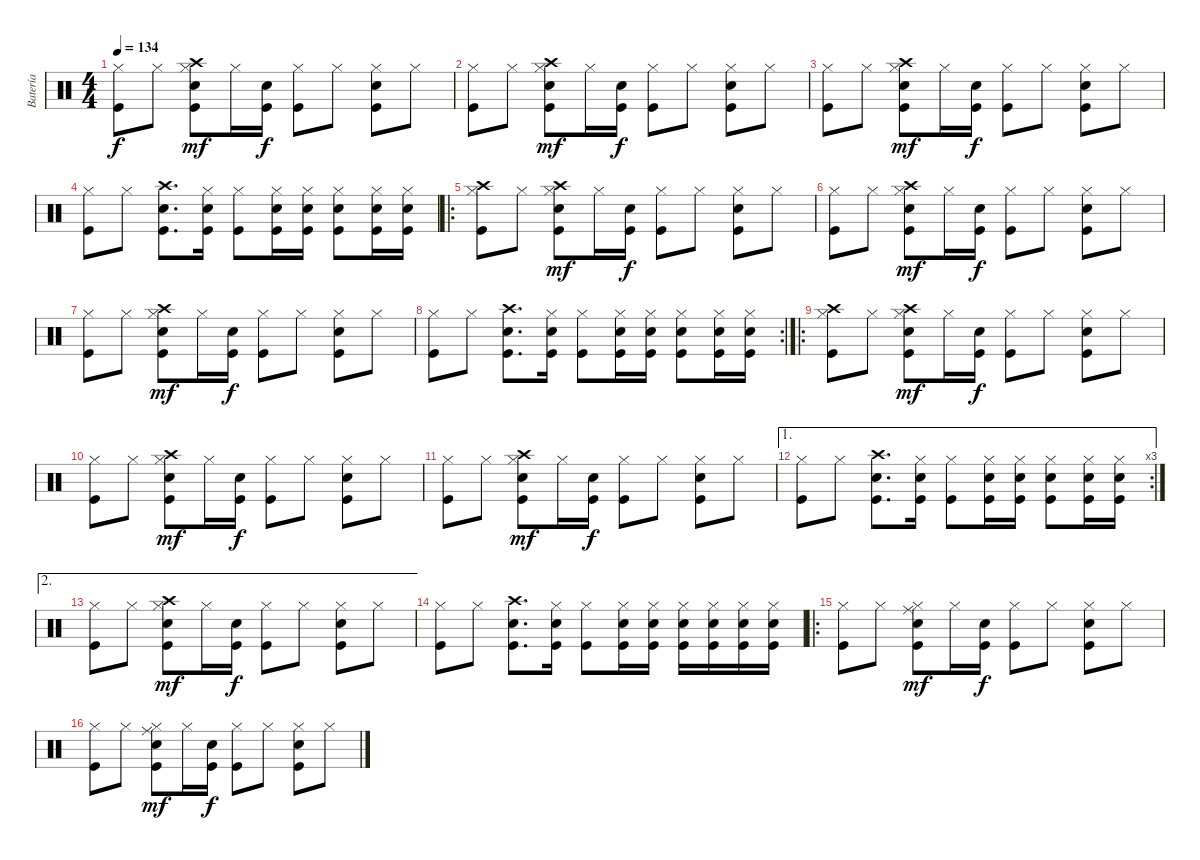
\track ("Batería" "Batería") {instrument percussion}
\staff {score}
\articulation defaults
\ts (4 4)
\tempo 134
\clef neutral
\ks c
("Hi-Hat (closed)" "Kick (hit)").8{dy f} "Hi-Hat (closed)".8 ("Snare (hit) 2" "Crash high (hit)" "Kick (hit)" "Hi-Hat (closed)").8{dy mf} "Hi-Hat (closed)".16 ("Snare (hit) 2" "Kick (hit)").16{dy f} ("Hi-Hat (closed)" "Kick (hit)").8 "Hi-Hat (closed)".8 ("Hi-Hat (closed)" "Snare (hit) 2" "Kick (hit)").8 "Hi-Hat (closed)".8 |
("Hi-Hat (closed)" "Kick (hit)").8 "Hi-Hat (closed)".8 ("Snare (hit) 2" "Crash high (hit)" "Kick (hit)" "Hi-Hat (closed)").8{dy mf} "Hi-Hat (closed)".16 ("Snare (hit) 2" "Kick (hit)").16{dy f} ("Hi-Hat (closed)" "Kick (hit)").8 "Hi-Hat (closed)".8 ("Hi-Hat (closed)" "Snare (hit) 2" "Kick (hit)").8 "Hi-Hat (closed)".8 |
("Hi-Hat (closed)" "Kick (hit)").8 "Hi-Hat (closed)".8 ("Snare (hit) 2" "Crash high (hit)" "Kick (hit)" "Hi-Hat (closed)").8{dy mf} "Hi-Hat (closed)".16 ("Snare (hit) 2" "Kick (hit)").16{dy f} ("Hi-Hat (closed)" "Kick (hit)").8 "Hi-Hat (closed)".8 ("Hi-Hat (closed)" "Snare (hit) 2" "Kick (hit)").8 "Hi-Hat (closed)".8 |
("Hi-Hat (closed)" "Kick (hit)").8 "Hi-Hat (closed)".8 ("Snare (hit) 2" "Crash high (hit)" "Kick (hit)").8{d} ("Hi-Hat (closed)" "Snare (hit) 2" "Kick (hit)").16 ("Hi-Hat (closed)" "Kick (hit)").8 ("Hi-Hat (closed)" "Snare (hit) 2" "Kick (hit)").16 ("Hi-Hat (closed)" "Snare (hit) 2" "Kick (hit)").16 ("Hi-Hat (closed)" "Snare (hit) 2" "Kick (hit)").8 ("Hi-Hat (closed)" "Snare (hit) 2" "Kick (hit)").16 ("Hi-Hat (closed)" "Snare (hit) 2" "Kick (hit)").16 |
\ro
("Crash high (hit)" "Kick (hit)" "Hi-Hat (closed)").8 "Hi-Hat (closed)".8 ("Snare (hit) 2" "Crash high (hit)" "Kick (hit)" "Hi-Hat (closed)").8{dy mf} "Hi-Hat (closed)".16 ("Snare (hit) 2" "Kick (hit)").16{dy f} ("Hi-Hat (closed)" "Kick (hit)").8 "Hi-Hat (closed)".8 ("Hi-Hat (closed)" "Snare (hit) 2" "Kick (hit)").8 "Hi-Hat (closed)".8 |
("Hi-Hat (closed)" "Kick (hit)").8 "Hi-Hat (closed)".8 ("Snare (hit) 2" "Crash high (hit)" "Kick (hit)" "Hi-Hat (closed)").8{dy mf} "Hi-Hat (closed)".16 ("Snare (hit) 2" "Kick (hit)").16{dy f} ("Hi-Hat (closed)" "Kick (hit)").8 "Hi-Hat (closed)".8 ("Hi-Hat (closed)" "Snare (hit) 2" "Kick (hit)").8 "Hi-Hat (closed)".8 |
("Hi-Hat (closed)" "Kick (hit)").8 "Hi-Hat (closed)".8 ("Snare (hit) 2" "Crash high (hit)" "Kick (hit)" "Hi-Hat (closed)").8{dy mf} "Hi-Hat (closed)".16 ("Snare (hit) 2" "Kick (hit)").16{dy f} ("Hi-Hat (closed)" "Kick (hit)").8 "Hi-Hat (closed)".8 ("Hi-Hat (closed)" "Snare (hit) 2" "Kick (hit)").8 "Hi-Hat (closed)".8 |
\rc 2
("Hi-Hat (closed)" "Kick (hit)").8 "Hi-Hat (closed)".8 ("Snare (hit) 2" "Crash high (hit)" "Kick (hit)").8{d} ("Hi-Hat (closed)" "Snare (hit) 2" "Kick (hit)").16 ("Hi-Hat (closed)" "Kick (hit)").8 ("Hi-Hat (closed)" "Snare (hit) 2" "Kick (hit)").16 ("Hi-Hat (closed)" "Snare (hit) 2" "Kick (hit)").16 ("Hi-Hat (closed)" "Snare (hit) 2" "Kick (hit)").8 ("Hi-Hat (closed)" "Snare (hit) 2" "Kick (hit)").16 ("Hi-Hat (closed)" "Snare (hit) 2" "Kick (hit)").16 |
\ro
("Crash high (hit)" "Kick (hit)" "Hi-Hat (closed)").8 "Hi-Hat (closed)".8 ("Snare (hit) 2" "Crash high (hit)" "Kick (hit)" "Hi-Hat (closed)").8{dy mf} "Hi-Hat (closed)".16 ("Snare (hit) 2" "Kick (hit)").16{dy f} ("Hi-Hat (closed)" "Kick (hit)").8 "Hi-Hat (closed)".8 ("Hi-Hat (closed)" "Snare (hit) 2" "Kick (hit)").8 "Hi-Hat (closed)".8 |
("Hi-Hat (closed)" "Kick (hit)").8 "Hi-Hat (closed)".8 ("Snare (hit) 2" "Crash high (hit)" "Kick (hit)" "Hi-Hat (closed)").8{dy mf} "Hi-Hat (closed)".16 ("Snare (hit) 2" "Kick (hit)").16{dy f} ("Hi-Hat (closed)" "Kick (hit)").8 "Hi-Hat (closed)".8 ("Hi-Hat (closed)" "Snare (hit) 2" "Kick (hit)").8 "Hi-Hat (closed)".8 |
("Hi-Hat (closed)" "Kick (hit)").8 "Hi-Hat (closed)".8 ("Snare (hit) 2" "Crash high (hit)" "Kick (hit)" "Hi-Hat (closed)").8{dy mf} "Hi-Hat (closed)".16 ("Snare (hit) 2" "Kick (hit)").16{dy f} ("Hi-Hat (closed)" "Kick (hit)").8 "Hi-Hat (closed)".8 ("Hi-Hat (closed)" "Snare (hit) 2" "Kick (hit)").8 "Hi-Hat (closed)".8 |
\ae 1
\rc 3
("Hi-Hat (closed)" "Kick (hit)").8 "Hi-Hat (closed)".8 ("Snare (hit) 2" "Crash high (hit)" "Kick (hit)").8{d} ("Hi-Hat (closed)" "Snare (hit) 2" "Kick (hit)").16 ("Hi-Hat (closed)" "Kick (hit)").8 ("Hi-Hat (closed)" "Snare (hit) 2" "Kick (hit)").16 ("Hi-Hat (closed)" "Snare (hit) 2" "Kick (hit)").16 ("Hi-Hat (closed)" "Snare (hit) 2" "Kick (hit)").8 ("Hi-Hat (closed)" "Snare (hit) 2" "Kick (hit)").16 ("Hi-Hat (closed)" "Snare (hit) 2" "Kick (hit)").16 |
\ae 2
("Hi-Hat (closed)" "Kick (hit)").8 "Hi-Hat (closed)".8 ("Snare (hit) 2" "Crash high (hit)" "Kick (hit)" "Hi-Hat (closed)").8{dy mf} "Hi-Hat (closed)".16 ("Snare (hit) 2" "Kick (hit)").16{dy f} ("Hi-Hat (closed)" "Kick (hit)").8 "Hi-Hat (closed)".8 ("Hi-Hat (closed)" "Snare (hit) 2" "Kick (hit)").8 "Hi-Hat (closed)".8 |
("Hi-Hat (closed)" "Kick (hit)").8 "Hi-Hat (closed)".8 ("Snare (hit) 2" "Crash high (hit)" "Kick (hit)").8{d} ("Hi-Hat (closed)" "Snare (hit) 2" "Kick (hit)").16 ("Hi-Hat (closed)" "Kick (hit)").8 ("Hi-Hat (closed)" "Snare (hit) 2" "Kick (hit)").16 ("Hi-Hat (closed)" "Snare (hit) 2" "Kick (hit)").16 ("Hi-Hat (closed)" "Snare (hit) 2" "Kick (hit)").16 ("Hi-Hat (closed)" "Snare (hit) 2" "Kick (hit)").16 ("Hi-Hat (closed)" "Snare (hit) 2" "Kick (hit)").16 ("Hi-Hat (closed)" "Snare (hit) 2" "Kick (hit)").16 |
\ro
("Hi-Hat (closed)" "Kick (hit)").8 "Hi-Hat (closed)".8 ("Snare (hit) 2" "Ride (middle)" "Kick (hit)" "Hi-Hat (closed)").8{dy mf} "Hi-Hat (closed)".16 ("Snare (hit) 2" "Kick (hit)").16{dy f} ("Hi-Hat (closed)" "Kick (hit)").8 "Hi-Hat (closed)".8 ("Hi-Hat (closed)" "Snare (hit) 2" "Kick (hit)").8 "Hi-Hat (closed)".8 |
("Hi-Hat (closed)" "Kick (hit)").8 "Hi-Hat (closed)".8 ("Snare (hit) 2" "Ride (middle)" "Kick (hit)" "Hi-Hat (closed)").8{dy mf} "Hi-Hat (closed)".16 ("Snare (hit) 2" "Kick (hit)").16{dy f} ("Hi-Hat (closed)" "Kick (hit)").8 "Hi-Hat (closed)".8 ("Hi-Hat (closed)" "Snare (hit) 2" "Kick (hit)").8 "Hi-Hat (closed)".8
